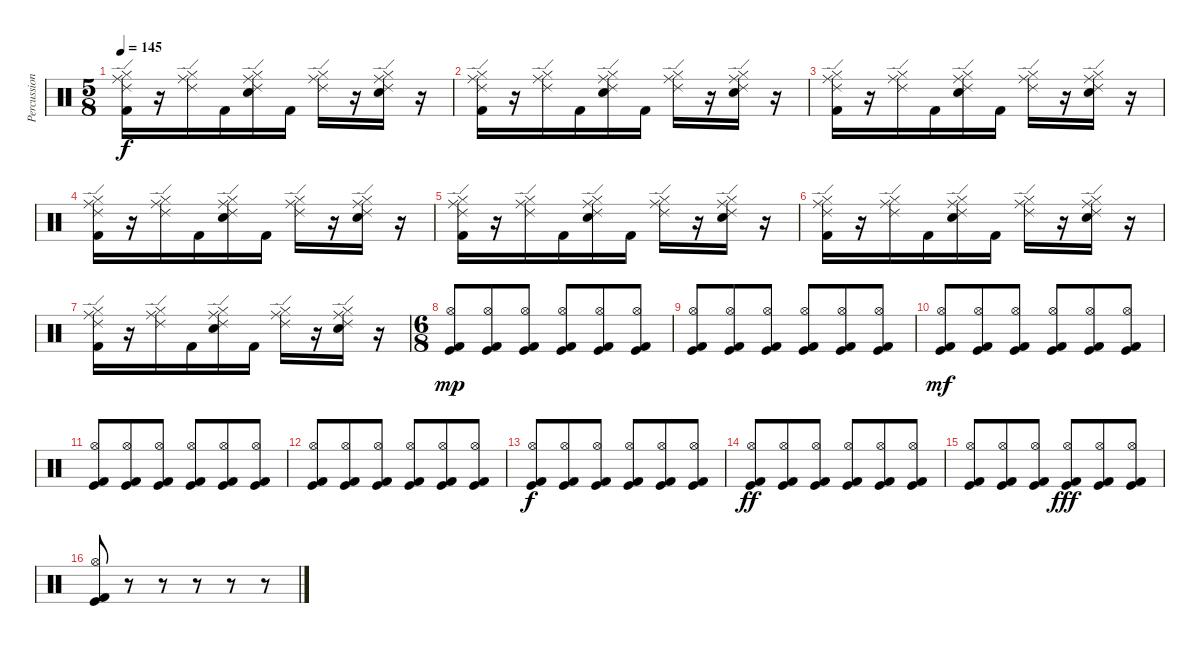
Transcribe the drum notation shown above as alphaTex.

\track ("Percussion" "Percussion") {instrument percussion}
\staff {score}
\articulation defaults
\ts (5 8)
\tempo 145
\clef neutral
\ks c
("Ride (middle)" "Kick (hit) 2" "Ride (edge) 2" "Hi-Hat (closed)").16{dy f} r.16 ("Ride (middle)" "Ride (edge) 2" "Hi-Hat (closed)").16 "Kick (hit) 2".16 ("Ride (middle)" "Electric Snare (hit)" "Ride (edge) 2" "Hi-Hat (closed)").16 "Kick (hit) 2".16 ("Ride (middle)" "Ride (edge) 2" "Hi-Hat (closed)").16 r.16 ("Ride (middle)" "Electric Snare (hit)" "Ride (edge) 2" "Hi-Hat (closed)").16 r.16 |
("Ride (middle)" "Kick (hit) 2" "Ride (edge) 2" "Hi-Hat (closed)").16 r.16 ("Ride (middle)" "Ride (edge) 2" "Hi-Hat (closed)").16 "Kick (hit) 2".16 ("Ride (middle)" "Electric Snare (hit)" "Ride (edge) 2" "Hi-Hat (closed)").16 "Kick (hit) 2".16 ("Ride (middle)" "Ride (edge) 2" "Hi-Hat (closed)").16 r.16 ("Ride (middle)" "Electric Snare (hit)" "Ride (edge) 2" "Hi-Hat (closed)").16 r.16 |
("Ride (middle)" "Kick (hit) 2" "Ride (edge) 2" "Hi-Hat (closed)").16 r.16 ("Ride (middle)" "Ride (edge) 2" "Hi-Hat (closed)").16 "Kick (hit) 2".16 ("Ride (middle)" "Electric Snare (hit)" "Ride (edge) 2" "Hi-Hat (closed)").16 "Kick (hit) 2".16 ("Ride (middle)" "Ride (edge) 2" "Hi-Hat (closed)").16 r.16 ("Ride (middle)" "Electric Snare (hit)" "Ride (edge) 2" "Hi-Hat (closed)").16 r.16 |
("Ride (middle)" "Kick (hit) 2" "Ride (edge) 2" "Hi-Hat (closed)").16 r.16 ("Ride (middle)" "Ride (edge) 2" "Hi-Hat (closed)").16 "Kick (hit) 2".16 ("Ride (middle)" "Electric Snare (hit)" "Ride (edge) 2" "Hi-Hat (closed)").16 "Kick (hit) 2".16 ("Ride (middle)" "Ride (edge) 2" "Hi-Hat (closed)").16 r.16 ("Ride (middle)" "Electric Snare (hit)" "Ride (edge) 2" "Hi-Hat (closed)").16 r.16 |
("Ride (middle)" "Kick (hit) 2" "Ride (edge) 2" "Hi-Hat (closed)").16 r.16 ("Ride (middle)" "Ride (edge) 2" "Hi-Hat (closed)").16 "Kick (hit) 2".16 ("Ride (middle)" "Electric Snare (hit)" "Ride (edge) 2" "Hi-Hat (closed)").16 "Kick (hit) 2".16 ("Ride (middle)" "Ride (edge) 2" "Hi-Hat (closed)").16 r.16 ("Ride (middle)" "Electric Snare (hit)" "Ride (edge) 2" "Hi-Hat (closed)").16 r.16 |
("Ride (middle)" "Kick (hit) 2" "Ride (edge) 2" "Hi-Hat (closed)").16 r.16 ("Ride (middle)" "Ride (edge) 2" "Hi-Hat (closed)").16 "Kick (hit) 2".16 ("Ride (middle)" "Electric Snare (hit)" "Ride (edge) 2" "Hi-Hat (closed)").16 "Kick (hit) 2".16 ("Ride (middle)" "Ride (edge) 2" "Hi-Hat (closed)").16 r.16 ("Ride (middle)" "Electric Snare (hit)" "Ride (edge) 2" "Hi-Hat (closed)").16 r.16 |
("Ride (middle)" "Kick (hit) 2" "Ride (edge) 2" "Hi-Hat (closed)").16 r.16 ("Ride (middle)" "Ride (edge) 2" "Hi-Hat (closed)").16 "Kick (hit) 2".16 ("Ride (middle)" "Electric Snare (hit)" "Ride (edge) 2" "Hi-Hat (closed)").16 "Kick (hit) 2".16 ("Ride (middle)" "Ride (edge) 2" "Hi-Hat (closed)").16 r.16 ("Ride (middle)" "Electric Snare (hit)" "Ride (edge) 2" "Hi-Hat (closed)").16 r.16 |
\ts (6 8)
("Hi-Hat (open)" "Kick (hit)" "Kick (hit) 2").8{dy mp} ("Hi-Hat (open)" "Kick (hit)" "Kick (hit) 2").8 ("Hi-Hat (open)" "Kick (hit)" "Kick (hit) 2").8 ("Hi-Hat (open)" "Kick (hit)" "Kick (hit) 2").8 ("Hi-Hat (open)" "Kick (hit)" "Kick (hit) 2").8 ("Hi-Hat (open)" "Kick (hit)" "Kick (hit) 2").8 |
("Hi-Hat (open)" "Kick (hit)" "Kick (hit) 2").8 ("Hi-Hat (open)" "Kick (hit)" "Kick (hit) 2").8 ("Hi-Hat (open)" "Kick (hit)" "Kick (hit) 2").8 ("Hi-Hat (open)" "Kick (hit)" "Kick (hit) 2").8 ("Hi-Hat (open)" "Kick (hit)" "Kick (hit) 2").8 ("Hi-Hat (open)" "Kick (hit)" "Kick (hit) 2").8 |
("Hi-Hat (open)" "Kick (hit)" "Kick (hit) 2").8{dy mf} ("Hi-Hat (open)" "Kick (hit)" "Kick (hit) 2").8 ("Hi-Hat (open)" "Kick (hit)" "Kick (hit) 2").8 ("Hi-Hat (open)" "Kick (hit)" "Kick (hit) 2").8 ("Hi-Hat (open)" "Kick (hit)" "Kick (hit) 2").8 ("Hi-Hat (open)" "Kick (hit)" "Kick (hit) 2").8 |
("Hi-Hat (open)" "Kick (hit)" "Kick (hit) 2").8 ("Hi-Hat (open)" "Kick (hit)" "Kick (hit) 2").8 ("Hi-Hat (open)" "Kick (hit)" "Kick (hit) 2").8 ("Hi-Hat (open)" "Kick (hit)" "Kick (hit) 2").8 ("Hi-Hat (open)" "Kick (hit)" "Kick (hit) 2").8 ("Hi-Hat (open)" "Kick (hit)" "Kick (hit) 2").8 |
("Hi-Hat (open)" "Kick (hit)" "Kick (hit) 2").8 ("Hi-Hat (open)" "Kick (hit)" "Kick (hit) 2").8 ("Hi-Hat (open)" "Kick (hit)" "Kick (hit) 2").8 ("Hi-Hat (open)" "Kick (hit)" "Kick (hit) 2").8 ("Hi-Hat (open)" "Kick (hit)" "Kick (hit) 2").8 ("Hi-Hat (open)" "Kick (hit)" "Kick (hit) 2").8 |
("Hi-Hat (open)" "Kick (hit)" "Kick (hit) 2").8{dy f} ("Hi-Hat (open)" "Kick (hit)" "Kick (hit) 2").8 ("Hi-Hat (open)" "Kick (hit)" "Kick (hit) 2").8 ("Hi-Hat (open)" "Kick (hit)" "Kick (hit) 2").8 ("Hi-Hat (open)" "Kick (hit)" "Kick (hit) 2").8 ("Hi-Hat (open)" "Kick (hit)" "Kick (hit) 2").8 |
("Hi-Hat (open)" "Kick (hit)" "Kick (hit) 2").8{dy ff} ("Hi-Hat (open)" "Kick (hit)" "Kick (hit) 2").8 ("Hi-Hat (open)" "Kick (hit)" "Kick (hit) 2").8 ("Hi-Hat (open)" "Kick (hit)" "Kick (hit) 2").8 ("Hi-Hat (open)" "Kick (hit)" "Kick (hit) 2").8 ("Hi-Hat (open)" "Kick (hit)" "Kick (hit) 2").8 |
("Hi-Hat (open)" "Kick (hit)" "Kick (hit) 2").8 ("Hi-Hat (open)" "Kick (hit)" "Kick (hit) 2").8 ("Hi-Hat (open)" "Kick (hit)" "Kick (hit) 2").8 ("Hi-Hat (open)" "Kick (hit)" "Kick (hit) 2").8{dy fff} ("Hi-Hat (open)" "Kick (hit)" "Kick (hit) 2").8 ("Hi-Hat (open)" "Kick (hit)" "Kick (hit) 2").8 |
("Hi-Hat (open)" "Kick (hit)" "Kick (hit) 2").8 r.8 r.8 r.8 r.8 r.8
